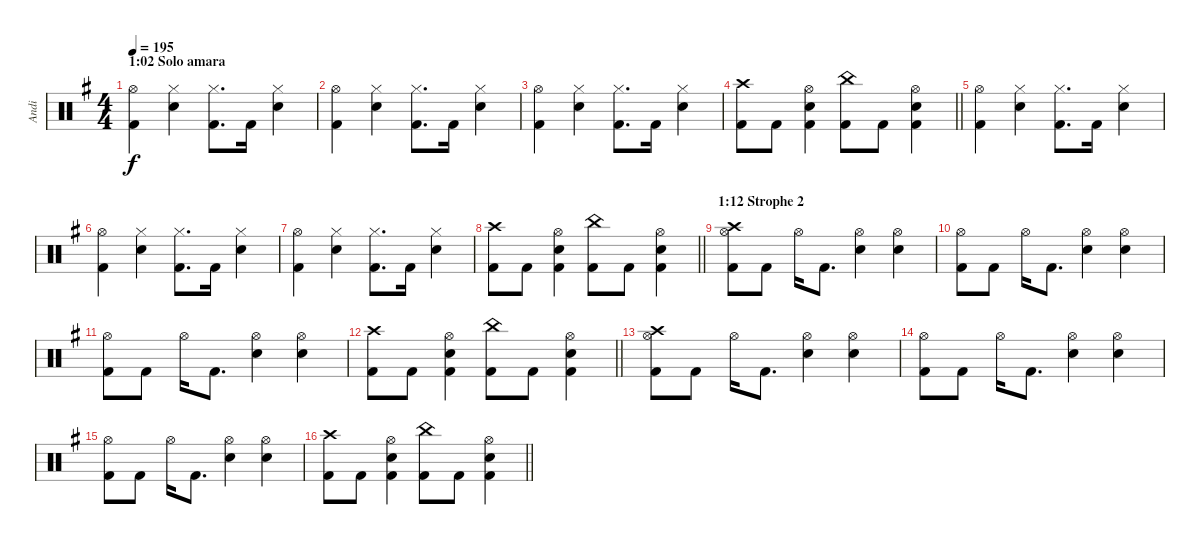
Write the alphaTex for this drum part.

\track ("Andi" "Andi") {instrument percussion}
\staff {score}
\articulation defaults
\ts (4 4)
\section ("" "1:02 Solo amara")
\tempo 195
\clef neutral
\ks g
("Hi-Hat (open)" "Kick (hit) 2").4{dy f} ("Hi-Hat (closed)" "Snare (hit) 2").4 ("Hi-Hat (closed)" "Kick (hit) 2").8{d} "Kick (hit) 2".16 ("Hi-Hat (closed)" "Snare (hit) 2").4 |
("Hi-Hat (open)" "Kick (hit) 2").4 ("Hi-Hat (closed)" "Snare (hit) 2").4 ("Hi-Hat (closed)" "Kick (hit) 2").8{d} "Kick (hit) 2".16 ("Hi-Hat (closed)" "Snare (hit) 2").4 |
("Hi-Hat (open)" "Kick (hit) 2").4 ("Hi-Hat (closed)" "Snare (hit) 2").4 ("Hi-Hat (closed)" "Kick (hit) 2").8{d} "Kick (hit) 2".16 ("Hi-Hat (closed)" "Snare (hit) 2").4 |
\barLineRight lightlight
("Crash high (hit)" "Kick (hit) 2").8 "Kick (hit) 2".8 ("Hi-Hat (open)" "Kick (hit) 2" "Snare (hit) 2").4 ("China (hit)" "Kick (hit) 2").8 "Kick (hit) 2".8 ("Hi-Hat (open)" "Kick (hit) 2" "Snare (hit) 2").4 |
("Hi-Hat (open)" "Kick (hit) 2").4 ("Hi-Hat (closed)" "Snare (hit) 2").4 ("Hi-Hat (closed)" "Kick (hit) 2").8{d} "Kick (hit) 2".16 ("Hi-Hat (closed)" "Snare (hit) 2").4 |
("Hi-Hat (open)" "Kick (hit) 2").4 ("Hi-Hat (closed)" "Snare (hit) 2").4 ("Hi-Hat (closed)" "Kick (hit) 2").8{d} "Kick (hit) 2".16 ("Hi-Hat (closed)" "Snare (hit) 2").4 |
("Hi-Hat (open)" "Kick (hit) 2").4 ("Hi-Hat (closed)" "Snare (hit) 2").4 ("Hi-Hat (closed)" "Kick (hit) 2").8{d} "Kick (hit) 2".16 ("Hi-Hat (closed)" "Snare (hit) 2").4 |
\barLineRight lightlight
("Crash high (hit)" "Kick (hit) 2").8 "Kick (hit) 2".8 ("Hi-Hat (open)" "Kick (hit) 2" "Snare (hit) 2").4 ("China (hit)" "Kick (hit) 2").8 "Kick (hit) 2".8 ("Hi-Hat (open)" "Kick (hit) 2" "Snare (hit) 2").4 |
\section ("" "1:12 Strophe 2")
("Crash high (hit)" "Hi-Hat (open)" "Kick (hit) 2").8 "Kick (hit) 2".8 "Hi-Hat (open)".16 "Kick (hit) 2".8{d} ("Hi-Hat (open)" "Snare (hit) 2").4 ("Hi-Hat (open)" "Snare (hit) 2").4 |
("Hi-Hat (open)" "Kick (hit) 2").8 "Kick (hit) 2".8 "Hi-Hat (open)".16 "Kick (hit) 2".8{d} ("Hi-Hat (open)" "Snare (hit) 2").4 ("Hi-Hat (open)" "Snare (hit) 2").4 |
("Hi-Hat (open)" "Kick (hit) 2").8 "Kick (hit) 2".8 "Hi-Hat (open)".16 "Kick (hit) 2".8{d} ("Hi-Hat (open)" "Snare (hit) 2").4 ("Hi-Hat (open)" "Snare (hit) 2").4 |
\barLineRight lightlight
("Crash high (hit)" "Kick (hit) 2").8 "Kick (hit) 2".8 ("Hi-Hat (open)" "Kick (hit) 2" "Snare (hit) 2").4 ("China (hit)" "Kick (hit) 2").8 "Kick (hit) 2".8 ("Hi-Hat (open)" "Kick (hit) 2" "Snare (hit) 2").4 |
("Crash high (hit)" "Hi-Hat (open)" "Kick (hit) 2").8 "Kick (hit) 2".8 "Hi-Hat (open)".16 "Kick (hit) 2".8{d} ("Hi-Hat (open)" "Snare (hit) 2").4 ("Hi-Hat (open)" "Snare (hit) 2").4 |
("Hi-Hat (open)" "Kick (hit) 2").8 "Kick (hit) 2".8 "Hi-Hat (open)".16 "Kick (hit) 2".8{d} ("Hi-Hat (open)" "Snare (hit) 2").4 ("Hi-Hat (open)" "Snare (hit) 2").4 |
("Hi-Hat (open)" "Kick (hit) 2").8 "Kick (hit) 2".8 "Hi-Hat (open)".16 "Kick (hit) 2".8{d} ("Hi-Hat (open)" "Snare (hit) 2").4 ("Hi-Hat (open)" "Snare (hit) 2").4 |
\barLineRight lightlight
("Crash high (hit)" "Kick (hit) 2").8 "Kick (hit) 2".8 ("Hi-Hat (open)" "Kick (hit) 2" "Snare (hit) 2").4 ("China (hit)" "Kick (hit) 2").8 "Kick (hit) 2".8 ("Hi-Hat (open)" "Kick (hit) 2" "Snare (hit) 2").4
